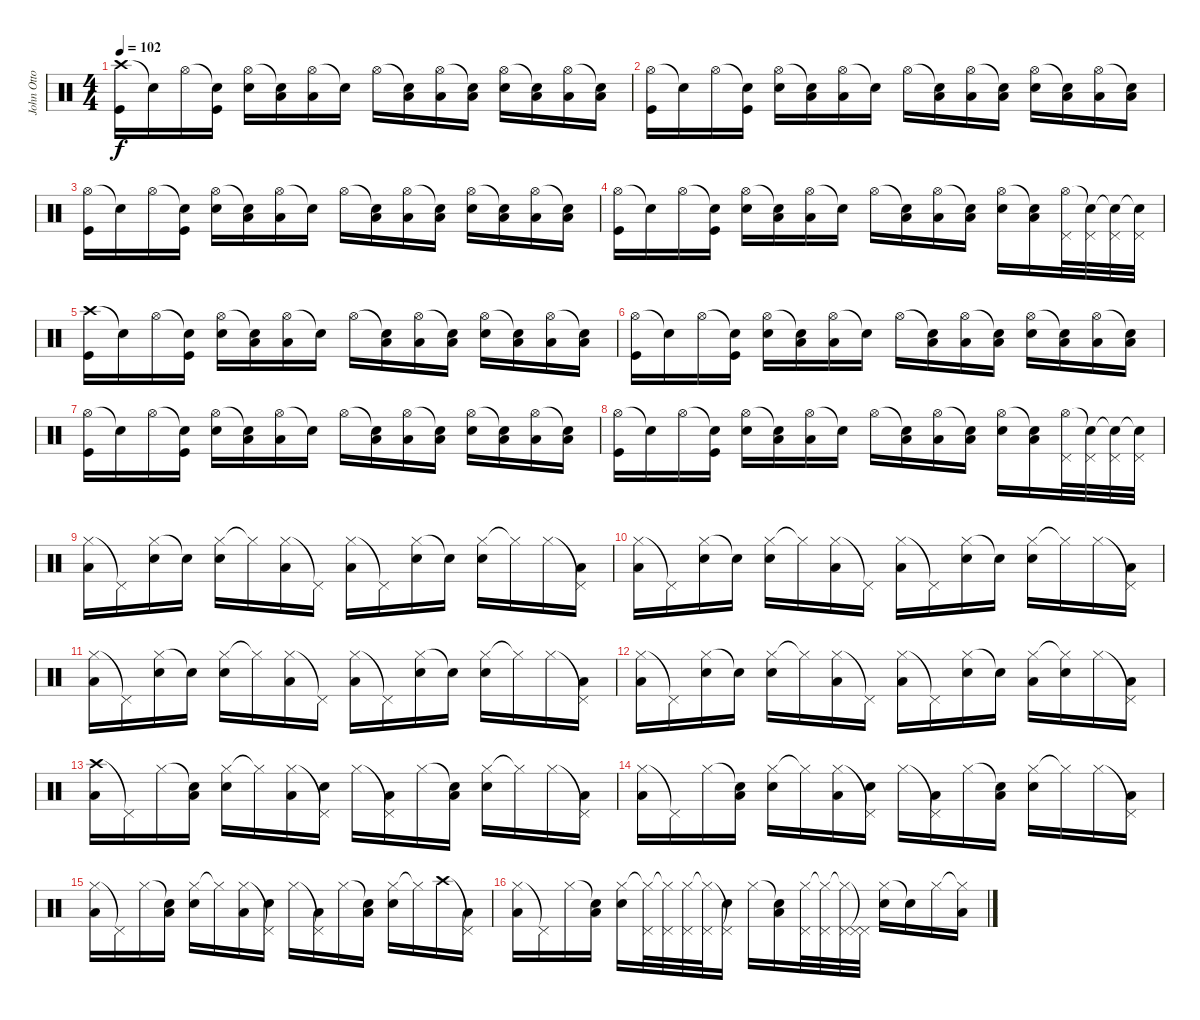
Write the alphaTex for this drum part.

\track ("John Otto (1st Drums)" "John Otto ") {instrument percussion}
\staff {score}
\articulation defaults
\ts (4 4)
\tempo 102
\clef neutral
\ks c
("Crash high (hit)" "Kick (hit)").16{dy f} "Snare (hit)"{t}.16 "Hi-Hat (open)".16 ("Snare (hit)"{t} "Kick (hit)").16 ("Hi-Hat (open)" "Snare (hit) 2").16 ("Snare (hit)"{t} "Low Tom (hit)").16 ("Hi-Hat (open)" "Low Tom (hit)").16 "Snare (hit)"{t}.16 "Hi-Hat (open)".16 ("Snare (hit)"{t} "Low Tom (hit)").16 ("Hi-Hat (open)" "Low Tom (hit)").16 ("Snare (hit)"{t} "Low Tom (hit)").16 ("Hi-Hat (open)" "Snare (hit) 2").16 ("Snare (hit)"{t} "Low Tom (hit)").16 ("Hi-Hat (open)" "Low Tom (hit)").16 ("Snare (hit)"{t} "Low Tom (hit)").16 |
("Hi-Hat (open)" "Kick (hit)").16 "Snare (hit)"{t}.16 "Hi-Hat (open)".16 ("Snare (hit)"{t} "Kick (hit)").16 ("Hi-Hat (open)" "Snare (hit) 2").16 ("Snare (hit)"{t} "Low Tom (hit)").16 ("Hi-Hat (open)" "Low Tom (hit)").16 "Snare (hit)"{t}.16 "Hi-Hat (open)".16 ("Snare (hit)"{t} "Low Tom (hit)").16 ("Hi-Hat (open)" "Low Tom (hit)").16 ("Snare (hit)"{t} "Low Tom (hit)").16 ("Hi-Hat (open)" "Snare (hit) 2").16 ("Snare (hit)"{t} "Low Tom (hit)").16 ("Hi-Hat (open)" "Low Tom (hit)").16 ("Snare (hit)"{t} "Low Tom (hit)").16 |
("Hi-Hat (open)" "Kick (hit)").16 "Snare (hit)"{t}.16 "Hi-Hat (open)".16 ("Snare (hit)"{t} "Kick (hit)").16 ("Hi-Hat (open)" "Snare (hit) 2").16 ("Snare (hit)"{t} "Low Tom (hit)").16 ("Hi-Hat (open)" "Low Tom (hit)").16 "Snare (hit)"{t}.16 "Hi-Hat (open)".16 ("Snare (hit)"{t} "Low Tom (hit)").16 ("Hi-Hat (open)" "Low Tom (hit)").16 ("Snare (hit)"{t} "Low Tom (hit)").16 ("Hi-Hat (open)" "Snare (hit) 2").16 ("Snare (hit)"{t} "Low Tom (hit)").16 ("Hi-Hat (open)" "Low Tom (hit)").16 ("Snare (hit)"{t} "Low Tom (hit)").16 |
("Hi-Hat (open)" "Kick (hit)").16 "Snare (hit)"{t}.16 "Hi-Hat (open)".16 ("Snare (hit)"{t} "Kick (hit)").16 ("Hi-Hat (open)" "Snare (hit) 2").16 ("Snare (hit)"{t} "Low Tom (hit)").16 ("Hi-Hat (open)" "Low Tom (hit)").16 "Snare (hit)"{t}.16 "Hi-Hat (open)".16 ("Snare (hit)"{t} "Low Tom (hit)").16 ("Hi-Hat (open)" "Low Tom (hit)").16 ("Snare (hit)"{t} "Low Tom (hit)").16 ("Hi-Hat (open)" "Snare (hit) 2").16 ("Snare (hit)"{t} "Low Tom (hit)").16 ("Hi-Hat (open)" "Pedal Hi-Hat (hit)").32 ("Snare (hit)"{t} "Pedal Hi-Hat (hit)").32 ("Snare (hit)"{t} "Pedal Hi-Hat (hit)").32 ("Snare (hit)"{t} "Pedal Hi-Hat (hit)").32 |
("Crash high (hit)" "Kick (hit)").16 "Snare (hit)"{t}.16 "Hi-Hat (open)".16 ("Snare (hit)"{t} "Kick (hit)").16 ("Hi-Hat (open)" "Snare (hit) 2").16 ("Snare (hit)"{t} "Low Tom (hit)").16 ("Hi-Hat (open)" "Low Tom (hit)").16 "Snare (hit)"{t}.16 "Hi-Hat (open)".16 ("Snare (hit)"{t} "Low Tom (hit)").16 ("Hi-Hat (open)" "Low Tom (hit)").16 ("Snare (hit)"{t} "Low Tom (hit)").16 ("Hi-Hat (open)" "Snare (hit) 2").16 ("Snare (hit)"{t} "Low Tom (hit)").16 ("Hi-Hat (open)" "Low Tom (hit)").16 ("Snare (hit)"{t} "Low Tom (hit)").16 |
("Hi-Hat (open)" "Kick (hit)").16 "Snare (hit)"{t}.16 "Hi-Hat (open)".16 ("Snare (hit)"{t} "Kick (hit)").16 ("Hi-Hat (open)" "Snare (hit) 2").16 ("Snare (hit)"{t} "Low Tom (hit)").16 ("Hi-Hat (open)" "Low Tom (hit)").16 "Snare (hit)"{t}.16 "Hi-Hat (open)".16 ("Snare (hit)"{t} "Low Tom (hit)").16 ("Hi-Hat (open)" "Low Tom (hit)").16 ("Snare (hit)"{t} "Low Tom (hit)").16 ("Hi-Hat (open)" "Snare (hit) 2").16 ("Snare (hit)"{t} "Low Tom (hit)").16 ("Hi-Hat (open)" "Low Tom (hit)").16 ("Snare (hit)"{t} "Low Tom (hit)").16 |
("Hi-Hat (open)" "Kick (hit)").16 "Snare (hit)"{t}.16 "Hi-Hat (open)".16 ("Snare (hit)"{t} "Kick (hit)").16 ("Hi-Hat (open)" "Snare (hit) 2").16 ("Snare (hit)"{t} "Low Tom (hit)").16 ("Hi-Hat (open)" "Low Tom (hit)").16 "Snare (hit)"{t}.16 "Hi-Hat (open)".16 ("Snare (hit)"{t} "Low Tom (hit)").16 ("Hi-Hat (open)" "Low Tom (hit)").16 ("Snare (hit)"{t} "Low Tom (hit)").16 ("Hi-Hat (open)" "Snare (hit) 2").16 ("Snare (hit)"{t} "Low Tom (hit)").16 ("Hi-Hat (open)" "Low Tom (hit)").16 ("Snare (hit)"{t} "Low Tom (hit)").16 |
("Hi-Hat (open)" "Kick (hit)").16 "Snare (hit)"{t}.16 "Hi-Hat (open)".16 ("Snare (hit)"{t} "Kick (hit)").16 ("Hi-Hat (open)" "Snare (hit) 2").16 ("Snare (hit)"{t} "Low Tom (hit)").16 ("Hi-Hat (open)" "Low Tom (hit)").16 "Snare (hit)"{t}.16 "Hi-Hat (open)".16 ("Snare (hit)"{t} "Low Tom (hit)").16 ("Hi-Hat (open)" "Low Tom (hit)").16 ("Snare (hit)"{t} "Low Tom (hit)").16 ("Hi-Hat (open)" "Snare (hit) 2").16 ("Snare (hit)"{t} "Low Tom (hit)").16 ("Hi-Hat (open)" "Pedal Hi-Hat (hit)").32 ("Snare (hit)"{t} "Pedal Hi-Hat (hit)").32 ("Snare (hit)"{t} "Pedal Hi-Hat (hit)").32 ("Snare (hit)"{t} "Pedal Hi-Hat (hit)").32 |
("Hi-Hat (closed)" "Low Tom (hit)").16 "Pedal Hi-Hat (hit)"{t}.16 ("Hi-Hat (closed)" "Snare (hit) 2").16 "Snare (hit)"{t}.16 ("Hi-Hat (closed)" "Snare (hit) 2").16 "Hi-Hat (closed)"{t}.16 ("Hi-Hat (closed)" "Low Tom (hit)").16 "Pedal Hi-Hat (hit)"{t}.16 ("Hi-Hat (closed)" "Low Tom (hit)").16 "Pedal Hi-Hat (hit)"{t}.16 ("Hi-Hat (closed)" "Snare (hit) 2").16 "Snare (hit)"{t}.16 ("Hi-Hat (closed)" "Snare (hit) 2").16 "Hi-Hat (closed)"{t}.16 "Hi-Hat (closed)".16 ("Pedal Hi-Hat (hit)"{t} "Low Tom (hit)").16 |
("Hi-Hat (closed)" "Low Tom (hit)").16 "Pedal Hi-Hat (hit)"{t}.16 ("Hi-Hat (closed)" "Snare (hit) 2").16 "Snare (hit)"{t}.16 ("Hi-Hat (closed)" "Snare (hit) 2").16 "Hi-Hat (closed)"{t}.16 ("Hi-Hat (closed)" "Low Tom (hit)").16 "Pedal Hi-Hat (hit)"{t}.16 ("Hi-Hat (closed)" "Low Tom (hit)").16 "Pedal Hi-Hat (hit)"{t}.16 ("Hi-Hat (closed)" "Snare (hit) 2").16 "Snare (hit)"{t}.16 ("Hi-Hat (closed)" "Snare (hit) 2").16 "Hi-Hat (closed)"{t}.16 "Hi-Hat (closed)".16 ("Pedal Hi-Hat (hit)"{t} "Low Tom (hit)").16 |
("Hi-Hat (closed)" "Low Tom (hit)").16 "Pedal Hi-Hat (hit)"{t}.16 ("Hi-Hat (closed)" "Snare (hit) 2").16 "Snare (hit)"{t}.16 ("Hi-Hat (closed)" "Snare (hit) 2").16 "Hi-Hat (closed)"{t}.16 ("Hi-Hat (closed)" "Low Tom (hit)").16 "Pedal Hi-Hat (hit)"{t}.16 ("Hi-Hat (closed)" "Low Tom (hit)").16 "Pedal Hi-Hat (hit)"{t}.16 ("Hi-Hat (closed)" "Snare (hit) 2").16 "Snare (hit)"{t}.16 ("Hi-Hat (closed)" "Snare (hit) 2").16 "Hi-Hat (closed)"{t}.16 "Hi-Hat (closed)".16 ("Pedal Hi-Hat (hit)"{t} "Low Tom (hit)").16 |
("Hi-Hat (closed)" "Low Tom (hit)").16 "Pedal Hi-Hat (hit)"{t}.16 ("Hi-Hat (closed)" "Snare (hit) 2").16 "Snare (hit)"{t}.16 ("Hi-Hat (closed)" "Snare (hit) 2").16 "Hi-Hat (closed)"{t}.16 ("Hi-Hat (closed)" "Low Tom (hit)").16 "Pedal Hi-Hat (hit)"{t}.16 ("Hi-Hat (closed)" "Low Tom (hit)").16 "Pedal Hi-Hat (hit)"{t}.16 ("Hi-Hat (closed)" "Snare (hit) 2").16 "Snare (hit)"{t}.16 ("Hi-Hat (closed)" "Low Tom (hit)").16 ("Hi-Hat (closed)"{t} "Snare (hit) 2").16 "Hi-Hat (closed)".16 ("Pedal Hi-Hat (hit)"{t} "Low Tom (hit)").16 |
("Crash high (hit)" "Low Tom (hit)").16 "Pedal Hi-Hat (hit)"{t}.16 "Hi-Hat (closed)".16 ("Snare (hit)"{t} "Low Tom (hit)").16 ("Hi-Hat (closed)" "Snare (hit) 2").16 "Hi-Hat (closed)"{t}.16 ("Hi-Hat (closed)" "Low Tom (hit)").16 ("Pedal Hi-Hat (hit)"{t} "Snare (hit) 2").16 "Hi-Hat (closed)".16 ("Pedal Hi-Hat (hit)"{t} "Low Tom (hit)").16 "Hi-Hat (closed)".16 ("Snare (hit)"{t} "Low Tom (hit)").16 ("Hi-Hat (closed)" "Snare (hit) 2").16 "Hi-Hat (closed)"{t}.16 "Hi-Hat (closed)".16 ("Pedal Hi-Hat (hit)"{t} "Low Tom (hit)").16 |
("Hi-Hat (closed)" "Low Tom (hit)").16 "Pedal Hi-Hat (hit)"{t}.16 "Hi-Hat (closed)".16 ("Snare (hit)"{t} "Low Tom (hit)").16 ("Hi-Hat (closed)" "Snare (hit) 2").16 "Hi-Hat (closed)"{t}.16 ("Hi-Hat (closed)" "Low Tom (hit)").16 ("Pedal Hi-Hat (hit)"{t} "Snare (hit) 2").16 "Hi-Hat (closed)".16 ("Pedal Hi-Hat (hit)"{t} "Low Tom (hit)").16 "Hi-Hat (closed)".16 ("Snare (hit)"{t} "Low Tom (hit)").16 ("Hi-Hat (closed)" "Snare (hit) 2").16 "Hi-Hat (closed)"{t}.16 "Hi-Hat (closed)".16 ("Pedal Hi-Hat (hit)"{t} "Low Tom (hit)").16 |
("Hi-Hat (closed)" "Low Tom (hit)").16 "Pedal Hi-Hat (hit)"{t}.16 "Hi-Hat (closed)".16 ("Snare (hit)"{t} "Low Tom (hit)").16 ("Hi-Hat (closed)" "Snare (hit) 2").16 "Hi-Hat (closed)"{t}.16 ("Hi-Hat (closed)" "Low Tom (hit)").16 ("Pedal Hi-Hat (hit)"{t} "Snare (hit) 2").16 "Hi-Hat (closed)".16 ("Pedal Hi-Hat (hit)"{t} "Low Tom (hit)").16 "Hi-Hat (closed)".16 ("Snare (hit)"{t} "Low Tom (hit)").16 ("Hi-Hat (closed)" "Snare (hit) 2").16 "Hi-Hat (closed)"{t}.16 "Crash high (hit)".16 ("Pedal Hi-Hat (hit)"{t} "Low Tom (hit)").16 |
("Hi-Hat (closed)" "Low Tom (hit)").16 "Pedal Hi-Hat (hit)"{t}.16 "Hi-Hat (closed)".16 ("Snare (hit)"{t} "Low Tom (hit)").16 ("Hi-Hat (closed)" "Snare (hit) 2").16 ("Hi-Hat (closed)"{t} "Pedal Hi-Hat (hit)").32 ("Hi-Hat (closed)"{t} "Pedal Hi-Hat (hit)").32 ("Hi-Hat (closed)" "Pedal Hi-Hat (hit)").32 ("Hi-Hat (closed)"{t} "Pedal Hi-Hat (hit)").32 ("Pedal Hi-Hat (hit)"{t} "Snare (hit) 2").16 "Hi-Hat (closed)".16 ("Snare (hit)"{t} "Low Tom (hit)").16 ("Hi-Hat (closed)" "Pedal Hi-Hat (hit)").32 ("Hi-Hat (closed)"{t} "Pedal Hi-Hat (hit)").32 ("Hi-Hat (closed)"{t} "Pedal Hi-Hat (hit)").32 ("Pedal Hi-Hat (hit)"{t} "Pedal Hi-Hat (hit)").32 ("Hi-Hat (closed)" "Snare (hit) 2").16 "Snare (hit)"{t}.16 "Hi-Hat (closed)".16 ("Hi-Hat (closed)"{t} "Low Tom (hit)").16
